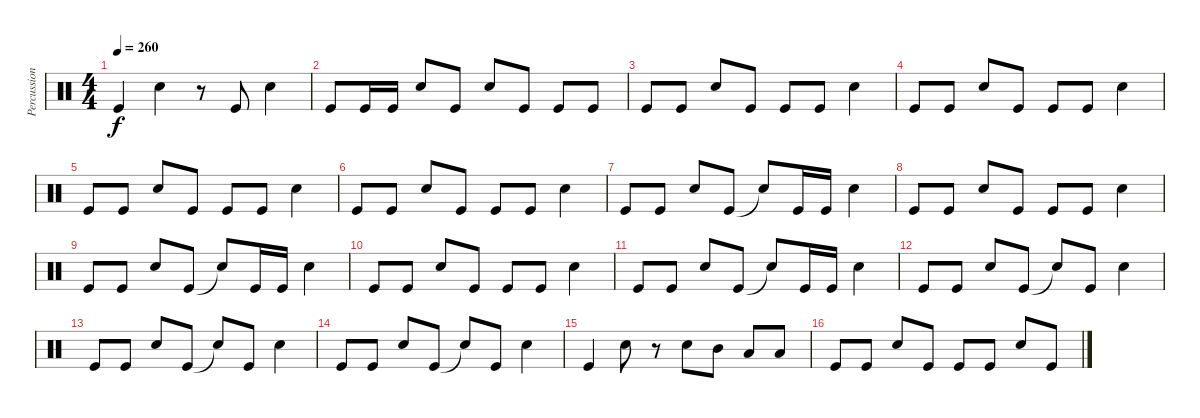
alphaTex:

\track ("Percussion" "Percussion") {instrument percussion}
\staff {score}
\articulation defaults
\ts (4 4)
\tempo 260
\clef neutral
\ks c "Kick (hit)".4{dy f} "Snare (hit) 2".4
r.8 "Kick (hit)".8 "Snare (hit) 2".4 |
"Kick (hit)".8 "Kick (hit)".16 "Kick (hit)".16 "Snare (hit) 2".8 "Kick (hit)".8 "Snare (hit) 2".8 "Kick (hit)".8 "Kick (hit)".8 "Kick (hit)".8 |
"Kick (hit)".8 "Kick (hit)".8 "Snare (hit) 2".8 "Kick (hit)".8 "Kick (hit)".8 "Kick (hit)".8 "Snare (hit) 2".4 |
"Kick (hit)".8 "Kick (hit)".8 "Snare (hit) 2".8 "Kick (hit)".8 "Kick (hit)".8 "Kick (hit)".8 "Snare (hit) 2".4 |
"Kick (hit)".8 "Kick (hit)".8 "Snare (hit) 2".8 "Kick (hit)".8 "Kick (hit)".8 "Kick (hit)".8 "Snare (hit) 2".4 |
"Kick (hit)".8 "Kick (hit)".8 "Snare (hit) 2".8 "Kick (hit)".8 "Kick (hit)".8 "Kick (hit)".8 "Snare (hit) 2".4 |
"Kick (hit)".8 "Kick (hit)".8 "Snare (hit) 2".8 "Kick (hit)".8 "Snare (hit)"{t}.8 "Kick (hit)".16 "Kick (hit)".16 "Snare (hit) 2".4 |
"Kick (hit)".8 "Kick (hit)".8 "Snare (hit) 2".8 "Kick (hit)".8 "Kick (hit)".8 "Kick (hit)".8 "Snare (hit) 2".4 |
"Kick (hit)".8 "Kick (hit)".8 "Snare (hit) 2".8 "Kick (hit)".8 "Snare (hit)"{t}.8 "Kick (hit)".16 "Kick (hit)".16 "Snare (hit) 2".4 |
"Kick (hit)".8 "Kick (hit)".8 "Snare (hit) 2".8 "Kick (hit)".8 "Kick (hit)".8 "Kick (hit)".8 "Snare (hit) 2".4 |
"Kick (hit)".8 "Kick (hit)".8 "Snare (hit) 2".8 "Kick (hit)".8 "Snare (hit)"{t}.8 "Kick (hit)".16 "Kick (hit)".16 "Snare (hit) 2".4 |
"Kick (hit)".8 "Kick (hit)".8 "Snare (hit) 2".8 "Kick (hit)".8 "Snare (hit)"{t}.8 "Kick (hit)".8 "Snare (hit) 2".4 |
"Kick (hit)".8 "Kick (hit)".8 "Snare (hit) 2".8 "Kick (hit)".8 "Snare (hit)"{t}.8 "Kick (hit)".8 "Snare (hit) 2".4 |
"Kick (hit)".8 "Kick (hit)".8 "Snare (hit) 2".8 "Kick (hit)".8 "Snare (hit)"{t}.8 "Kick (hit)".8 "Snare (hit) 2".4 |
"Kick (hit)".4 "Snare (hit) 2".8 r.8 "Snare (hit) 2".8 "Mid Tom (hit)".8 "Low Tom (hit)".8 "Low Tom (hit)".8 |
"Kick (hit)".8 "Kick (hit)".8 "Snare (hit) 2".8 "Kick (hit)".8 "Kick (hit)".8 "Kick (hit)".8 "Snare (hit) 2".8 "Kick (hit)".8
